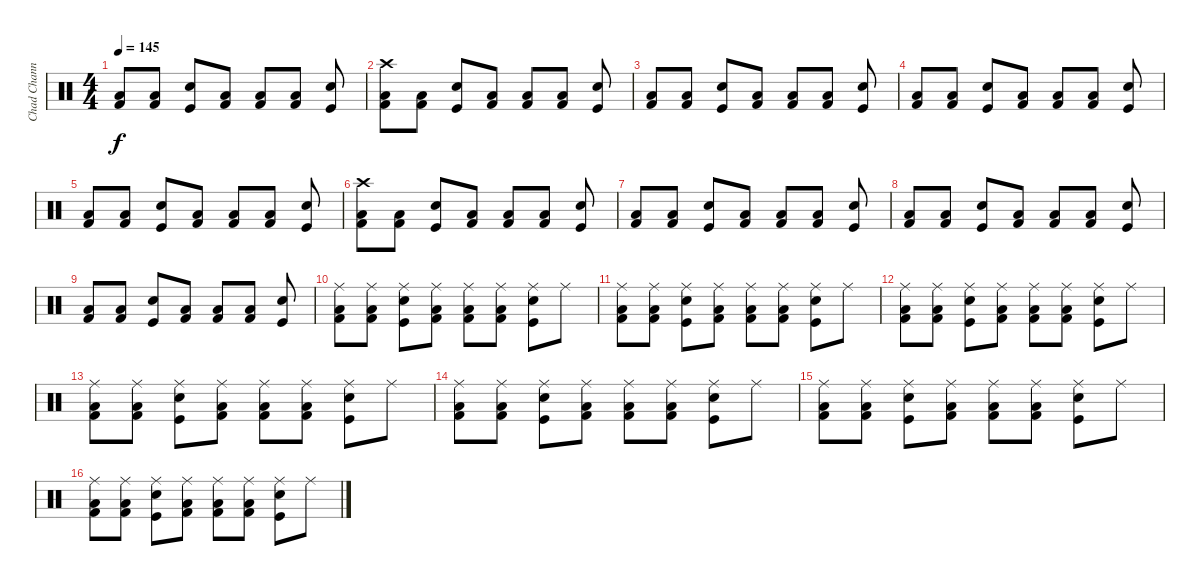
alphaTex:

\track ("Chad Channing" "Chad Chann") {instrument percussion}
\staff {score}
\articulation defaults
\ts (4 4)
\tempo 145
\clef neutral
\ks c
("Low Floor Tom (hit)" "Kick (hit) 2").8{dy f} ("Low Floor Tom (hit)" "Kick (hit) 2").8 ("Snare (hit) 2" "Kick (hit)").8 ("Low Floor Tom (hit)" "Kick (hit) 2").8 ("Low Floor Tom (hit)" "Kick (hit) 2").8 ("Low Floor Tom (hit)" "Kick (hit) 2").8 ("Snare (hit) 2" "Kick (hit)").8 |
("Crash high (hit)" "Low Floor Tom (hit)" "Kick (hit) 2").8 ("Low Floor Tom (hit)" "Kick (hit) 2").8 ("Snare (hit) 2" "Kick (hit)").8 ("Low Floor Tom (hit)" "Kick (hit) 2").8 ("Low Floor Tom (hit)" "Kick (hit) 2").8 ("Low Floor Tom (hit)" "Kick (hit) 2").8 ("Snare (hit) 2" "Kick (hit)").8 |
("Low Floor Tom (hit)" "Kick (hit) 2").8 ("Low Floor Tom (hit)" "Kick (hit) 2").8 ("Snare (hit) 2" "Kick (hit)").8 ("Low Floor Tom (hit)" "Kick (hit) 2").8 ("Low Floor Tom (hit)" "Kick (hit) 2").8 ("Low Floor Tom (hit)" "Kick (hit) 2").8 ("Snare (hit) 2" "Kick (hit)").8 |
("Low Floor Tom (hit)" "Kick (hit) 2").8 ("Low Floor Tom (hit)" "Kick (hit) 2").8 ("Snare (hit) 2" "Kick (hit)").8 ("Low Floor Tom (hit)" "Kick (hit) 2").8 ("Low Floor Tom (hit)" "Kick (hit) 2").8 ("Low Floor Tom (hit)" "Kick (hit) 2").8 ("Snare (hit) 2" "Kick (hit)").8 |
("Low Floor Tom (hit)" "Kick (hit) 2").8 ("Low Floor Tom (hit)" "Kick (hit) 2").8 ("Snare (hit) 2" "Kick (hit)").8 ("Low Floor Tom (hit)" "Kick (hit) 2").8 ("Low Floor Tom (hit)" "Kick (hit) 2").8 ("Low Floor Tom (hit)" "Kick (hit) 2").8 ("Snare (hit) 2" "Kick (hit)").8 |
("Crash high (hit)" "Low Floor Tom (hit)" "Kick (hit) 2").8 ("Low Floor Tom (hit)" "Kick (hit) 2").8 ("Snare (hit) 2" "Kick (hit)").8 ("Low Floor Tom (hit)" "Kick (hit) 2").8 ("Low Floor Tom (hit)" "Kick (hit) 2").8 ("Low Floor Tom (hit)" "Kick (hit) 2").8 ("Snare (hit) 2" "Kick (hit)").8 |
("Low Floor Tom (hit)" "Kick (hit) 2").8 ("Low Floor Tom (hit)" "Kick (hit) 2").8 ("Snare (hit) 2" "Kick (hit)").8 ("Low Floor Tom (hit)" "Kick (hit) 2").8 ("Low Floor Tom (hit)" "Kick (hit) 2").8 ("Low Floor Tom (hit)" "Kick (hit) 2").8 ("Snare (hit) 2" "Kick (hit)").8 |
("Low Floor Tom (hit)" "Kick (hit) 2").8 ("Low Floor Tom (hit)" "Kick (hit) 2").8 ("Snare (hit) 2" "Kick (hit)").8 ("Low Floor Tom (hit)" "Kick (hit) 2").8 ("Low Floor Tom (hit)" "Kick (hit) 2").8 ("Low Floor Tom (hit)" "Kick (hit) 2").8 ("Snare (hit) 2" "Kick (hit)").8 |
("Low Floor Tom (hit)" "Kick (hit) 2").8 ("Low Floor Tom (hit)" "Kick (hit) 2").8 ("Snare (hit) 2" "Kick (hit)").8 ("Low Floor Tom (hit)" "Kick (hit) 2").8 ("Low Floor Tom (hit)" "Kick (hit) 2").8 ("Low Floor Tom (hit)" "Kick (hit) 2").8 ("Snare (hit) 2" "Kick (hit)").8 |
("Ride (middle)" "Low Floor Tom (hit)" "Kick (hit) 2").8 ("Ride (middle)" "Low Floor Tom (hit)" "Kick (hit) 2").8 ("Snare (hit) 2" "Ride (middle)" "Kick (hit)").8 ("Ride (middle)" "Low Floor Tom (hit)" "Kick (hit) 2").8 ("Ride (middle)" "Low Floor Tom (hit)" "Kick (hit) 2").8 ("Ride (middle)" "Low Floor Tom (hit)" "Kick (hit) 2").8 ("Snare (hit) 2" "Ride (middle)" "Kick (hit)").8 "Ride (middle)".8 |
("Ride (middle)" "Low Floor Tom (hit)" "Kick (hit) 2").8 ("Ride (middle)" "Low Floor Tom (hit)" "Kick (hit) 2").8 ("Snare (hit) 2" "Ride (middle)" "Kick (hit)").8 ("Ride (middle)" "Low Floor Tom (hit)" "Kick (hit) 2").8 ("Ride (middle)" "Low Floor Tom (hit)" "Kick (hit) 2").8 ("Ride (middle)" "Low Floor Tom (hit)" "Kick (hit) 2").8 ("Snare (hit) 2" "Ride (middle)" "Kick (hit)").8 "Ride (middle)".8 |
("Ride (middle)" "Low Floor Tom (hit)" "Kick (hit) 2").8 ("Ride (middle)" "Low Floor Tom (hit)" "Kick (hit) 2").8 ("Snare (hit) 2" "Ride (middle)" "Kick (hit)").8 ("Ride (middle)" "Low Floor Tom (hit)" "Kick (hit) 2").8 ("Ride (middle)" "Low Floor Tom (hit)" "Kick (hit) 2").8 ("Ride (middle)" "Low Floor Tom (hit)" "Kick (hit) 2").8 ("Snare (hit) 2" "Ride (middle)" "Kick (hit)").8 "Ride (middle)".8 |
("Ride (middle)" "Low Floor Tom (hit)" "Kick (hit) 2").8 ("Ride (middle)" "Low Floor Tom (hit)" "Kick (hit) 2").8 ("Snare (hit) 2" "Ride (middle)" "Kick (hit)").8 ("Ride (middle)" "Low Floor Tom (hit)" "Kick (hit) 2").8 ("Ride (middle)" "Low Floor Tom (hit)" "Kick (hit) 2").8 ("Ride (middle)" "Low Floor Tom (hit)" "Kick (hit) 2").8 ("Snare (hit) 2" "Ride (middle)" "Kick (hit)").8 "Ride (middle)".8 |
("Ride (middle)" "Low Floor Tom (hit)" "Kick (hit) 2").8 ("Ride (middle)" "Low Floor Tom (hit)" "Kick (hit) 2").8 ("Snare (hit) 2" "Ride (middle)" "Kick (hit)").8 ("Ride (middle)" "Low Floor Tom (hit)" "Kick (hit) 2").8 ("Ride (middle)" "Low Floor Tom (hit)" "Kick (hit) 2").8 ("Ride (middle)" "Low Floor Tom (hit)" "Kick (hit) 2").8 ("Snare (hit) 2" "Ride (middle)" "Kick (hit)").8 "Ride (middle)".8 |
("Ride (middle)" "Low Floor Tom (hit)" "Kick (hit) 2").8 ("Ride (middle)" "Low Floor Tom (hit)" "Kick (hit) 2").8 ("Snare (hit) 2" "Ride (middle)" "Kick (hit)").8 ("Ride (middle)" "Low Floor Tom (hit)" "Kick (hit) 2").8 ("Ride (middle)" "Low Floor Tom (hit)" "Kick (hit) 2").8 ("Ride (middle)" "Low Floor Tom (hit)" "Kick (hit) 2").8 ("Snare (hit) 2" "Ride (middle)" "Kick (hit)").8 "Ride (middle)".8 |
("Ride (middle)" "Low Floor Tom (hit)" "Kick (hit) 2").8 ("Ride (middle)" "Low Floor Tom (hit)" "Kick (hit) 2").8 ("Snare (hit) 2" "Ride (middle)" "Kick (hit)").8 ("Ride (middle)" "Low Floor Tom (hit)" "Kick (hit) 2").8 ("Ride (middle)" "Low Floor Tom (hit)" "Kick (hit) 2").8 ("Ride (middle)" "Low Floor Tom (hit)" "Kick (hit) 2").8 ("Snare (hit) 2" "Ride (middle)" "Kick (hit)").8 "Ride (middle)".8
